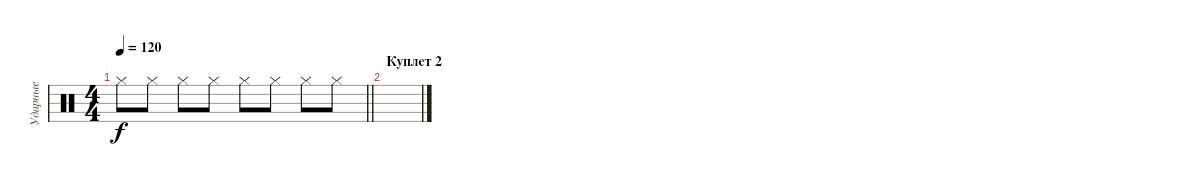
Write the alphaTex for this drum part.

\track ("Ударные" "Ударные") {instrument percussion}
\staff {score}
\articulation defaults
\ts (4 4)
\tempo 120
\clef neutral
\barLineRight lightlight
\ks c "Hi-Hat (closed)".8{dy f} "Hi-Hat (closed)".8 "Hi-Hat (closed)".8 "Hi-Hat (closed)".8 "Hi-Hat (closed)".8 "Hi-Hat (closed)".8 "Hi-Hat (closed)".8 "Hi-Hat (closed)".8
|
\section ("" "Куплет 2")
